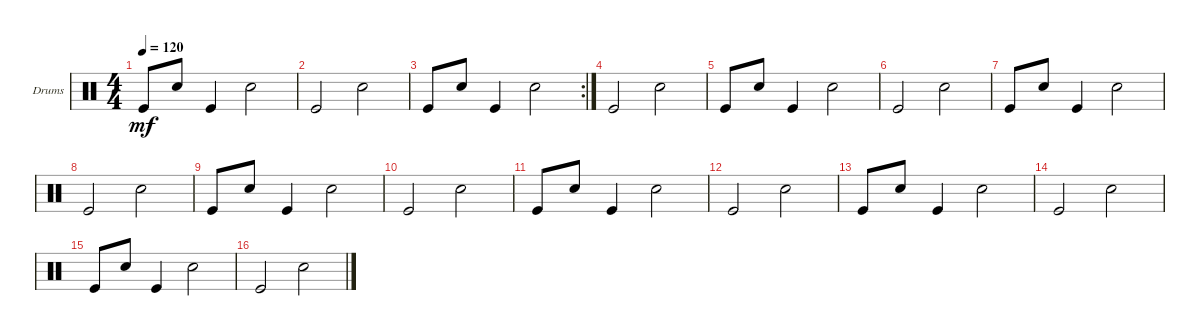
\defaultSystemsLayout 4
\bracketExtendMode groupsimilarinstruments
\firstSystemTrackNameOrientation horizontal
\otherSystemsTrackNameOrientation horizontal
\track ("Drumkit" "Drums") {instrument percussion}
\staff {score}
\articulation defaults
\ts (4 4)
\tempo 120
\clef neutral
\scale
0.333333
\ks c "Kick (hit)".8{dy mf} "Snare (hit) 2".8 "Kick (hit)".4 "Snare (hit) 2".2
|
\scale
0.333333 "Kick (hit)".2 "Snare (hit) 2".2 |
\rc 2
\scale
0.355932 "Kick (hit)".8 "Snare (hit) 2".8 "Kick (hit)".4 "Snare (hit) 2".2 |
\scale
0.322034 "Kick (hit)".2 "Snare (hit) 2".2 |
\scale
0.322034 "Kick (hit)".8 "Snare (hit) 2".8 "Kick (hit)".4 "Snare (hit) 2".2 |
\scale
0.333333 "Kick (hit)".2 "Snare (hit) 2".2 |
\scale
0.333333 "Kick (hit)".8 "Snare (hit) 2".8 "Kick (hit)".4 "Snare (hit) 2".2 |
\scale
0.333333 "Kick (hit)".2 "Snare (hit) 2".2 |
\scale
0.333333 "Kick (hit)".8 "Snare (hit) 2".8 "Kick (hit)".4 "Snare (hit) 2".2 |
\scale
0.333333 "Kick (hit)".2 "Snare (hit) 2".2 |
\scale
0.333333 "Kick (hit)".8 "Snare (hit) 2".8 "Kick (hit)".4 "Snare (hit) 2".2 |
\scale
0.333333 "Kick (hit)".2 "Snare (hit) 2".2 |
\scale
0.333333 "Kick (hit)".8 "Snare (hit) 2".8 "Kick (hit)".4 "Snare (hit) 2".2 |
\scale
0.333333 "Kick (hit)".2 "Snare (hit) 2".2 |
\scale
0.333333 "Kick (hit)".8 "Snare (hit) 2".8 "Kick (hit)".4 "Snare (hit) 2".2 |
\scale
0.333333 "Kick (hit)".2 "Snare (hit) 2".2
